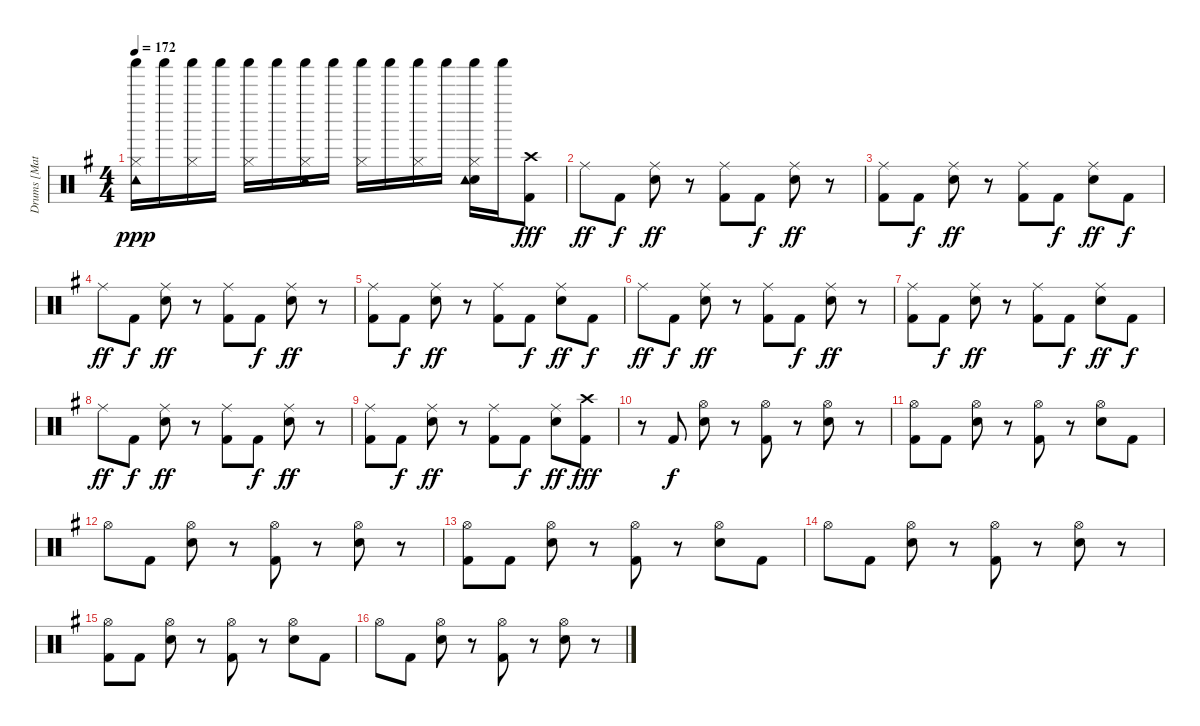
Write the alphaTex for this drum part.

\track ("Drums [Matt]" "Drums [Mat") {instrument percussion}
\staff {score}
\articulation defaults
\ts (4 4)
\tempo 172
\clef neutral
\ks g
("Hi-Hat (closed)" "Tambourine (hit)" "Shaker (hit)").16{dy ppp} "Shaker (hit)".16 ("Hi-Hat (closed)" "Shaker (hit)").16 "Shaker (hit)".16 ("Hi-Hat (closed)" "Shaker (hit)").16 "Shaker (hit)".16 ("Hi-Hat (closed)" "Tambourine (hit)" "Shaker (hit)").16 "Shaker (hit)".16 ("Hi-Hat (closed)" "Shaker (hit)").16 "Shaker (hit)".16 ("Hi-Hat (closed)" "Shaker (hit)").16 "Shaker (hit)".16 ("Hi-Hat (closed)" "Snare (hit) 2" "Tambourine (hit)" "Shaker (hit)").16 "Shaker (hit)".16 ("Kick (hit) 2" "Crash high (hit)").8{dy fff} |
"Ride (middle)".8{dy ff} "Kick (hit) 2".8{dy f} ("Ride (middle)" "Snare (hit) 2").8{dy ff} r.8 ("Ride (middle)" "Kick (hit) 2").8 "Kick (hit) 2".8{dy f} ("Ride (middle)" "Snare (hit) 2").8{dy ff} r.8 |
("Ride (middle)" "Kick (hit) 2").8 "Kick (hit) 2".8{dy f} ("Ride (middle)" "Snare (hit) 2").8{dy ff} r.8 ("Ride (middle)" "Kick (hit) 2").8 "Kick (hit) 2".8{dy f} ("Ride (middle)" "Snare (hit) 2").8{dy ff} "Kick (hit) 2".8{dy f} |
"Ride (middle)".8{dy ff} "Kick (hit) 2".8{dy f} ("Ride (middle)" "Snare (hit) 2").8{dy ff} r.8 ("Ride (middle)" "Kick (hit) 2").8 "Kick (hit) 2".8{dy f} ("Ride (middle)" "Snare (hit) 2").8{dy ff} r.8 |
("Ride (middle)" "Kick (hit) 2").8 "Kick (hit) 2".8{dy f} ("Ride (middle)" "Snare (hit) 2").8{dy ff} r.8 ("Ride (middle)" "Kick (hit) 2").8 "Kick (hit) 2".8{dy f} ("Ride (middle)" "Snare (hit) 2").8{dy ff} "Kick (hit) 2".8{dy f} |
"Ride (middle)".8{dy ff} "Kick (hit) 2".8{dy f} ("Ride (middle)" "Snare (hit) 2").8{dy ff} r.8 ("Ride (middle)" "Kick (hit) 2").8 "Kick (hit) 2".8{dy f} ("Ride (middle)" "Snare (hit) 2").8{dy ff} r.8 |
("Ride (middle)" "Kick (hit) 2").8 "Kick (hit) 2".8{dy f} ("Ride (middle)" "Snare (hit) 2").8{dy ff} r.8 ("Ride (middle)" "Kick (hit) 2").8 "Kick (hit) 2".8{dy f} ("Ride (middle)" "Snare (hit) 2").8{dy ff} "Kick (hit) 2".8{dy f} |
"Ride (middle)".8{dy ff} "Kick (hit) 2".8{dy f} ("Ride (middle)" "Snare (hit) 2").8{dy ff} r.8 ("Ride (middle)" "Kick (hit) 2").8 "Kick (hit) 2".8{dy f} ("Ride (middle)" "Snare (hit) 2").8{dy ff} r.8 |
("Ride (middle)" "Kick (hit) 2").8 "Kick (hit) 2".8{dy f} ("Ride (middle)" "Snare (hit) 2").8{dy ff} r.8 ("Ride (middle)" "Kick (hit) 2").8 "Kick (hit) 2".8{dy f} ("Ride (middle)" "Snare (hit) 2").8{dy ff} ("Kick (hit) 2" "Crash high (hit)").8{dy fff} |
r.8 "Kick (hit) 2".8{dy f} ("Hi-Hat (open)" "Snare (hit) 2").8 r.8 ("Hi-Hat (open)" "Kick (hit) 2").8 r.8 ("Hi-Hat (open)" "Snare (hit) 2").8 r.8 |
("Hi-Hat (open)" "Kick (hit) 2").8 "Kick (hit) 2".8 ("Hi-Hat (open)" "Snare (hit) 2").8 r.8 ("Hi-Hat (open)" "Kick (hit) 2").8 r.8 ("Hi-Hat (open)" "Snare (hit) 2").8 "Kick (hit) 2".8 |
"Hi-Hat (open)".8 "Kick (hit) 2".8 ("Hi-Hat (open)" "Snare (hit) 2").8 r.8 ("Hi-Hat (open)" "Kick (hit) 2").8 r.8 ("Hi-Hat (open)" "Snare (hit) 2").8 r.8 |
("Hi-Hat (open)" "Kick (hit) 2").8 "Kick (hit) 2".8 ("Hi-Hat (open)" "Snare (hit) 2").8 r.8 ("Hi-Hat (open)" "Kick (hit) 2").8 r.8 ("Hi-Hat (open)" "Snare (hit) 2").8 "Kick (hit) 2".8 |
"Hi-Hat (open)".8 "Kick (hit) 2".8 ("Hi-Hat (open)" "Snare (hit) 2").8 r.8 ("Hi-Hat (open)" "Kick (hit) 2").8 r.8 ("Hi-Hat (open)" "Snare (hit) 2").8 r.8 |
("Hi-Hat (open)" "Kick (hit) 2").8 "Kick (hit) 2".8 ("Hi-Hat (open)" "Snare (hit) 2").8 r.8 ("Hi-Hat (open)" "Kick (hit) 2").8 r.8 ("Hi-Hat (open)" "Snare (hit) 2").8 "Kick (hit) 2".8 |
"Hi-Hat (open)".8 "Kick (hit) 2".8 ("Hi-Hat (open)" "Snare (hit) 2").8 r.8 ("Hi-Hat (open)" "Kick (hit) 2").8 r.8 ("Hi-Hat (open)" "Snare (hit) 2").8 r.8
